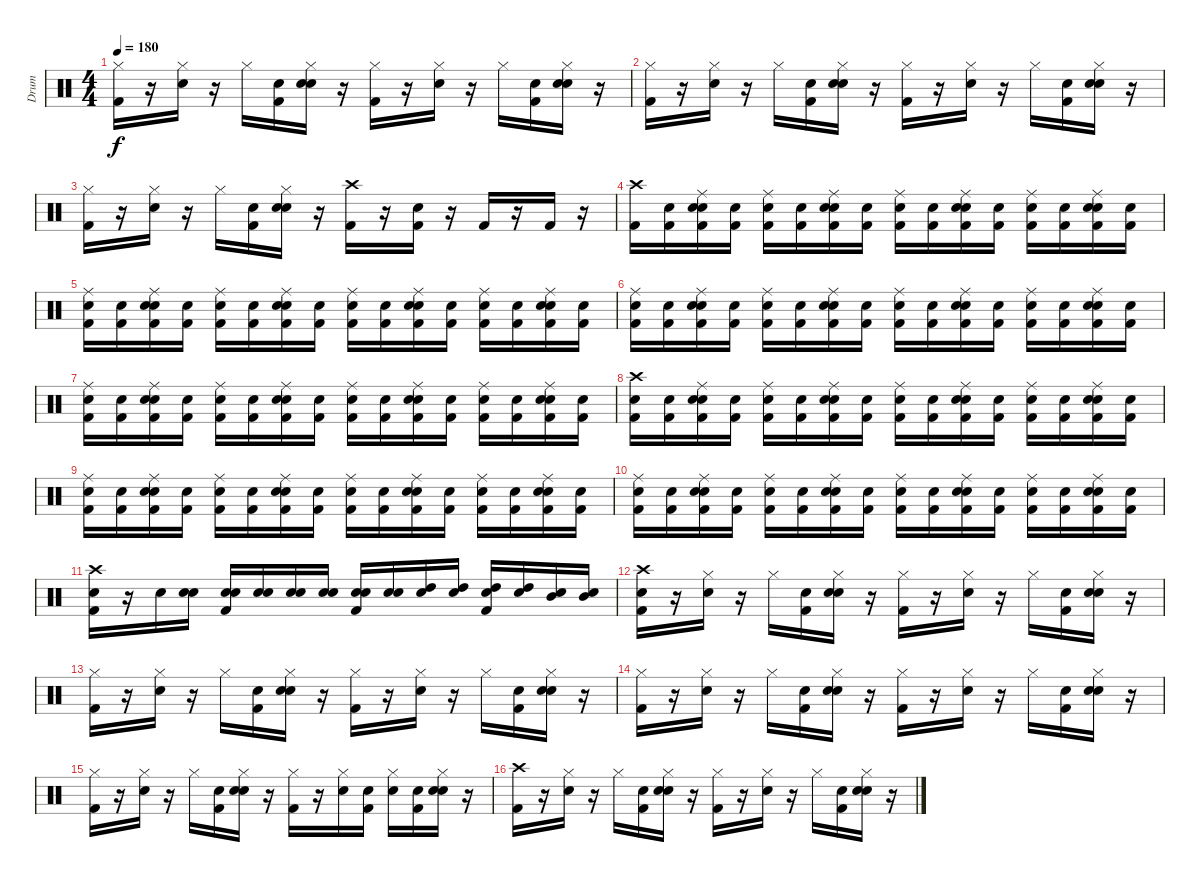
\track ("Drum" "Drum") {instrument percussion}
\staff {score}
\articulation defaults
\ts (4 4)
\tempo 180
\clef neutral
\ks c
("Kick (hit) 2" "Hi-Hat (closed)").16{dy f} r.16 ("Snare (hit) 2" "Hi-Hat (closed)").16 r.16 "Hi-Hat (closed)".16 ("Snare (hit)" "Kick (hit) 2").16 ("Snare (hit)" "Snare (hit) 2" "Hi-Hat (closed)").16 r.16 ("Kick (hit) 2" "Hi-Hat (closed)").16 r.16 ("Snare (hit) 2" "Hi-Hat (closed)").16 r.16 "Hi-Hat (closed)".16 ("Snare (hit)" "Kick (hit) 2").16 ("Snare (hit)" "Snare (hit) 2" "Hi-Hat (closed)").16 r.16 |
("Kick (hit) 2" "Hi-Hat (closed)").16 r.16 ("Snare (hit) 2" "Hi-Hat (closed)").16 r.16 "Hi-Hat (closed)".16 ("Snare (hit)" "Kick (hit) 2").16 ("Snare (hit)" "Snare (hit) 2" "Hi-Hat (closed)").16 r.16 ("Kick (hit) 2" "Hi-Hat (closed)").16 r.16 ("Snare (hit) 2" "Hi-Hat (closed)").16 r.16 "Hi-Hat (closed)".16 ("Snare (hit)" "Kick (hit) 2").16 ("Snare (hit)" "Snare (hit) 2" "Hi-Hat (closed)").16 r.16 |
("Kick (hit) 2" "Hi-Hat (closed)").16 r.16 ("Snare (hit) 2" "Hi-Hat (closed)").16 r.16 "Hi-Hat (closed)".16 ("Snare (hit)" "Kick (hit) 2").16 ("Snare (hit)" "Snare (hit) 2" "Hi-Hat (closed)").16 r.16 ("Kick (hit) 2" "Crash high (hit)").16 r.16 ("Kick (hit) 2" "Snare (hit) 2").16 r.16 "Kick (hit) 2".16 r.16 "Kick (hit) 2".16 r.16 |
("Kick (hit) 2" "Crash high (hit)").16 ("Snare (hit)" "Kick (hit) 2").16 ("Snare (hit)" "Snare (hit) 2" "Kick (hit) 2" "Ride (middle)").16 ("Snare (hit)" "Kick (hit) 2").16 ("Snare (hit)" "Kick (hit) 2" "Ride (middle)").16 ("Snare (hit)" "Kick (hit) 2").16 ("Snare (hit)" "Snare (hit) 2" "Kick (hit) 2" "Ride (middle)").16 ("Snare (hit)" "Kick (hit) 2").16 ("Snare (hit)" "Kick (hit) 2" "Ride (middle)").16 ("Snare (hit)" "Kick (hit) 2").16 ("Snare (hit)" "Kick (hit) 2" "Ride (middle)" "Snare (hit) 2").16 ("Snare (hit)" "Kick (hit) 2").16 ("Snare (hit)" "Kick (hit) 2" "Ride (middle)").16 ("Snare (hit)" "Kick (hit) 2").16 ("Snare (hit)" "Snare (hit) 2" "Kick (hit) 2" "Ride (middle)").16 ("Snare (hit)" "Kick (hit) 2").16 |
("Snare (hit)" "Kick (hit) 2" "Ride (middle)").16 ("Snare (hit)" "Kick (hit) 2").16 ("Snare (hit)" "Snare (hit) 2" "Kick (hit) 2" "Ride (middle)").16 ("Snare (hit)" "Kick (hit) 2").16 ("Snare (hit)" "Kick (hit) 2" "Ride (middle)").16 ("Snare (hit)" "Kick (hit) 2").16 ("Snare (hit)" "Snare (hit) 2" "Kick (hit) 2" "Ride (middle)").16 ("Snare (hit)" "Kick (hit) 2").16 ("Snare (hit)" "Kick (hit) 2" "Ride (middle)").16 ("Snare (hit)" "Kick (hit) 2").16 ("Snare (hit)" "Snare (hit) 2" "Kick (hit) 2" "Ride (middle)").16 ("Snare (hit)" "Kick (hit) 2").16 ("Snare (hit)" "Kick (hit) 2" "Ride (middle)").16 ("Snare (hit)" "Kick (hit) 2").16 ("Snare (hit)" "Snare (hit) 2" "Kick (hit) 2" "Ride (middle)").16 ("Snare (hit)" "Kick (hit) 2").16 |
("Snare (hit)" "Kick (hit) 2" "Ride (middle)").16 ("Snare (hit)" "Kick (hit) 2").16 ("Snare (hit)" "Snare (hit) 2" "Kick (hit) 2" "Ride (middle)").16 ("Snare (hit)" "Kick (hit) 2").16 ("Snare (hit)" "Kick (hit) 2" "Ride (middle)").16 ("Snare (hit)" "Kick (hit) 2").16 ("Snare (hit)" "Snare (hit) 2" "Kick (hit) 2" "Ride (middle)").16 ("Snare (hit)" "Kick (hit) 2").16 ("Snare (hit)" "Kick (hit) 2" "Ride (middle)").16 ("Snare (hit)" "Kick (hit) 2").16 ("Snare (hit)" "Snare (hit) 2" "Kick (hit) 2" "Ride (middle)").16 ("Snare (hit)" "Kick (hit) 2").16 ("Snare (hit)" "Kick (hit) 2" "Ride (middle)").16 ("Snare (hit)" "Kick (hit) 2").16 ("Snare (hit)" "Snare (hit) 2" "Kick (hit) 2" "Ride (middle)").16 ("Snare (hit)" "Kick (hit) 2").16 |
("Snare (hit)" "Kick (hit) 2" "Ride (middle)").16 ("Snare (hit)" "Kick (hit) 2").16 ("Snare (hit)" "Snare (hit) 2" "Kick (hit) 2" "Ride (middle)").16 ("Snare (hit)" "Kick (hit) 2").16 ("Snare (hit)" "Kick (hit) 2" "Ride (middle)").16 ("Snare (hit)" "Kick (hit) 2").16 ("Snare (hit)" "Snare (hit) 2" "Kick (hit) 2" "Ride (middle)").16 ("Snare (hit)" "Kick (hit) 2").16 ("Snare (hit)" "Kick (hit) 2" "Ride (middle)").16 ("Snare (hit)" "Kick (hit) 2").16 ("Snare (hit)" "Snare (hit) 2" "Kick (hit) 2" "Ride (middle)").16 ("Snare (hit)" "Kick (hit) 2").16 ("Snare (hit)" "Kick (hit) 2" "Ride (middle)").16 ("Snare (hit)" "Kick (hit) 2").16 ("Snare (hit)" "Snare (hit) 2" "Kick (hit) 2" "Ride (middle)").16 ("Snare (hit)" "Kick (hit) 2").16 |
("Snare (hit)" "Kick (hit) 2" "Crash high (hit)").16 ("Snare (hit)" "Kick (hit) 2").16 ("Snare (hit)" "Snare (hit) 2" "Kick (hit) 2" "Ride (middle)").16 ("Snare (hit)" "Kick (hit) 2").16 ("Snare (hit)" "Kick (hit) 2" "Ride (middle)").16 ("Snare (hit)" "Kick (hit) 2").16 ("Snare (hit)" "Snare (hit) 2" "Kick (hit) 2" "Ride (middle)").16 ("Snare (hit)" "Kick (hit) 2").16 ("Snare (hit)" "Kick (hit) 2" "Ride (middle)").16 ("Snare (hit)" "Kick (hit) 2").16 ("Snare (hit)" "Kick (hit) 2" "Ride (middle)" "Snare (hit) 2").16 ("Snare (hit)" "Kick (hit) 2").16 ("Snare (hit)" "Kick (hit) 2" "Ride (middle)").16 ("Snare (hit)" "Kick (hit) 2").16 ("Snare (hit)" "Snare (hit) 2" "Kick (hit) 2" "Ride (middle)").16 ("Snare (hit)" "Kick (hit) 2").16 |
("Snare (hit)" "Kick (hit) 2" "Ride (middle)").16 ("Snare (hit)" "Kick (hit) 2").16 ("Snare (hit)" "Snare (hit) 2" "Kick (hit) 2" "Ride (middle)").16 ("Snare (hit)" "Kick (hit) 2").16 ("Snare (hit)" "Kick (hit) 2" "Ride (middle)").16 ("Snare (hit)" "Kick (hit) 2").16 ("Snare (hit)" "Snare (hit) 2" "Kick (hit) 2" "Ride (middle)").16 ("Snare (hit)" "Kick (hit) 2").16 ("Snare (hit)" "Kick (hit) 2" "Ride (middle)").16 ("Snare (hit)" "Kick (hit) 2").16 ("Snare (hit)" "Snare (hit) 2" "Kick (hit) 2" "Ride (middle)").16 ("Snare (hit)" "Kick (hit) 2").16 ("Snare (hit)" "Kick (hit) 2" "Ride (middle)").16 ("Snare (hit)" "Kick (hit) 2").16 ("Snare (hit)" "Snare (hit) 2" "Kick (hit) 2" "Ride (middle)").16 ("Snare (hit)" "Kick (hit) 2").16 |
("Snare (hit)" "Kick (hit) 2" "Ride (middle)").16 ("Snare (hit)" "Kick (hit) 2").16 ("Snare (hit)" "Snare (hit) 2" "Kick (hit) 2" "Ride (middle)").16 ("Snare (hit)" "Kick (hit) 2").16 ("Snare (hit)" "Kick (hit) 2" "Ride (middle)").16 ("Snare (hit)" "Kick (hit) 2").16 ("Snare (hit)" "Snare (hit) 2" "Kick (hit) 2" "Ride (middle)").16 ("Snare (hit)" "Kick (hit) 2").16 ("Snare (hit)" "Kick (hit) 2" "Ride (middle)").16 ("Snare (hit)" "Kick (hit) 2").16 ("Snare (hit)" "Snare (hit) 2" "Kick (hit) 2" "Ride (middle)").16 ("Snare (hit)" "Kick (hit) 2").16 ("Snare (hit)" "Kick (hit) 2" "Ride (middle)").16 ("Snare (hit)" "Kick (hit) 2").16 ("Snare (hit)" "Snare (hit) 2" "Kick (hit) 2" "Ride (middle)").16 ("Snare (hit)" "Kick (hit) 2").16 |
("Snare (hit)" "Kick (hit) 2" "Crash high (hit)").16 r.16 "Snare (hit) 2".16 ("Snare (hit)" "Snare (hit) 2").16 ("Snare (hit)" "Snare (hit) 2" "Kick (hit) 2").16 ("Snare (hit)" "Snare (hit) 2").16 ("Snare (hit)" "Snare (hit) 2").16 ("Snare (hit)" "Snare (hit) 2").16 ("Snare (hit)" "Snare (hit) 2" "Kick (hit) 2").16 ("Snare (hit)" "Snare (hit) 2").16 ("Snare (hit)" "High Tom (hit)").16 ("Snare (hit)" "High Tom (hit)").16 ("Snare (hit)" "High Tom (hit)" "Kick (hit) 2").16 ("Snare (hit)" "High Tom (hit)").16 ("Snare (hit)" "Mid Tom (hit)").16 ("Snare (hit)" "Mid Tom (hit)").16 |
("Snare (hit)" "Crash high (hit)" "Kick (hit) 2").16 r.16 ("Snare (hit) 2" "Hi-Hat (closed)").16 r.16 "Hi-Hat (closed)".16 ("Snare (hit)" "Kick (hit) 2").16 ("Snare (hit)" "Snare (hit) 2" "Hi-Hat (closed)").16 r.16 ("Kick (hit) 2" "Hi-Hat (closed)").16 r.16 ("Snare (hit) 2" "Hi-Hat (closed)").16 r.16 "Hi-Hat (closed)".16 ("Snare (hit)" "Kick (hit) 2").16 ("Snare (hit)" "Snare (hit) 2" "Hi-Hat (closed)").16 r.16 |
("Kick (hit) 2" "Hi-Hat (closed)").16 r.16 ("Snare (hit) 2" "Hi-Hat (closed)").16 r.16 "Hi-Hat (closed)".16 ("Snare (hit)" "Kick (hit) 2").16 ("Snare (hit)" "Snare (hit) 2" "Hi-Hat (closed)").16 r.16 ("Kick (hit) 2" "Hi-Hat (closed)").16 r.16 ("Snare (hit) 2" "Hi-Hat (closed)").16 r.16 "Hi-Hat (closed)".16 ("Snare (hit)" "Kick (hit) 2").16 ("Snare (hit)" "Snare (hit) 2" "Hi-Hat (closed)").16 r.16 |
("Kick (hit) 2" "Hi-Hat (closed)").16 r.16 ("Snare (hit) 2" "Hi-Hat (closed)").16 r.16 "Hi-Hat (closed)".16 ("Snare (hit)" "Kick (hit) 2").16 ("Snare (hit)" "Snare (hit) 2" "Hi-Hat (closed)").16 r.16 ("Kick (hit) 2" "Hi-Hat (closed)").16 r.16 ("Snare (hit) 2" "Hi-Hat (closed)").16 r.16 "Hi-Hat (closed)".16 ("Snare (hit)" "Kick (hit) 2").16 ("Snare (hit)" "Snare (hit) 2" "Hi-Hat (closed)").16 r.16 |
("Kick (hit) 2" "Hi-Hat (closed)").16 r.16 ("Snare (hit) 2" "Hi-Hat (closed)").16 r.16 "Hi-Hat (closed)".16 ("Snare (hit)" "Kick (hit) 2").16 ("Snare (hit)" "Snare (hit) 2" "Hi-Hat (closed)").16 r.16 ("Kick (hit) 2" "Hi-Hat (closed)").16 r.16 ("Snare (hit) 2" "Hi-Hat (closed)").16 ("Snare (hit)" "Kick (hit) 2").16 ("Snare (hit)" "Hi-Hat (closed)").16 ("Snare (hit)" "Kick (hit) 2").16 ("Snare (hit)" "Snare (hit) 2" "Hi-Hat (closed)").16 r.16 |
("Kick (hit) 2" "Crash high (hit)").16 r.16 ("Hi-Hat (closed)" "Snare (hit) 2").16 r.16 "Hi-Hat (closed)".16 ("Snare (hit)" "Kick (hit) 2").16 ("Snare (hit)" "Snare (hit) 2" "Hi-Hat (closed)").16 r.16 ("Kick (hit) 2" "Hi-Hat (closed)").16 r.16 ("Snare (hit) 2" "Hi-Hat (closed)").16 r.16 "Hi-Hat (closed)".16 ("Snare (hit)" "Kick (hit) 2").16 ("Snare (hit)" "Snare (hit) 2" "Hi-Hat (closed)").16 r.16
